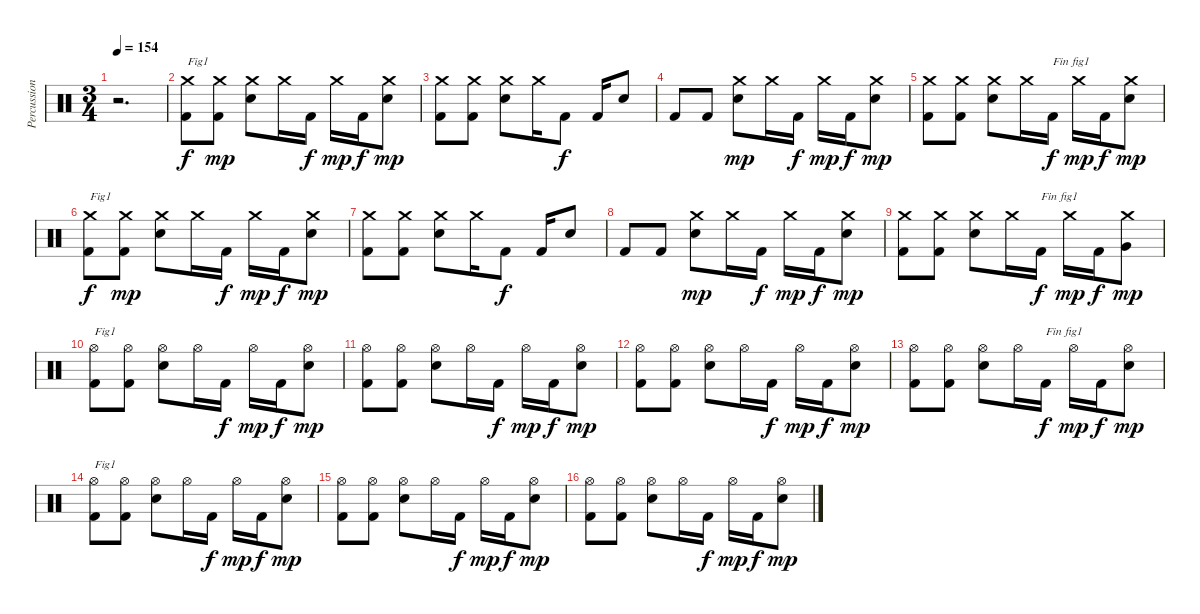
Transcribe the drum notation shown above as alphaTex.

\track ("Percussions" "Percussion") {instrument percussion}
\staff {score}
\articulation defaults
\ts (3 4)
\tempo 154
\clef neutral
\ks c
r.2{d dy f} |
("Kick (hit) 2" "Crash medium (hit)").8{txt "Fig1"} ("Kick (hit) 2" "Crash medium (hit)").8{dy mp} ("Electric Snare (hit)" "Crash medium (hit)").8 "Crash medium (hit)".16 "Kick (hit) 2".16{dy f} "Crash medium (hit)".16{dy mp} "Kick (hit) 2".16{dy f} ("Electric Snare (hit)" "Crash medium (hit)").8{dy mp} |
("Kick (hit) 2" "Crash medium (hit)").8 ("Kick (hit) 2" "Crash medium (hit)").8 ("Electric Snare (hit)" "Crash medium (hit)").8 "Crash medium (hit)".16 "Kick (hit) 2".8{dy f} "Kick (hit) 2".16 "Electric Snare (hit)".8 |
"Kick (hit) 2".8 "Kick (hit) 2".8 ("Electric Snare (hit)" "Crash medium (hit)").8{dy mp} "Crash medium (hit)".16 "Kick (hit) 2".16{dy f} "Crash medium (hit)".16{dy mp} "Kick (hit) 2".16{dy f} ("Electric Snare (hit)" "Crash medium (hit)").8{dy mp} |
("Kick (hit) 2" "Crash medium (hit)").8 ("Kick (hit) 2" "Crash medium (hit)").8 ("Electric Snare (hit)" "Crash medium (hit)").8 "Crash medium (hit)".16 "Kick (hit) 2".16{txt "Fin fig1" dy f} "Crash medium (hit)".16{dy mp} "Kick (hit) 2".16{dy f} ("Electric Snare (hit)" "Crash medium (hit)").8{dy mp} |
("Kick (hit) 2" "Crash medium (hit)").8{txt "Fig1" dy f} ("Kick (hit) 2" "Crash medium (hit)").8{dy mp} ("Electric Snare (hit)" "Crash medium (hit)").8 "Crash medium (hit)".16 "Kick (hit) 2".16{dy f} "Crash medium (hit)".16{dy mp} "Kick (hit) 2".16{dy f} ("Electric Snare (hit)" "Crash medium (hit)").8{dy mp} |
("Kick (hit) 2" "Crash medium (hit)").8 ("Kick (hit) 2" "Crash medium (hit)").8 ("Electric Snare (hit)" "Crash medium (hit)").8 "Crash medium (hit)".16 "Kick (hit) 2".8{dy f} "Kick (hit) 2".16 "Electric Snare (hit)".8 |
"Kick (hit) 2".8 "Kick (hit) 2".8 ("Electric Snare (hit)" "Crash medium (hit)").8{dy mp} "Crash medium (hit)".16 "Kick (hit) 2".16{dy f} "Crash medium (hit)".16{dy mp} "Kick (hit) 2".16{dy f} ("Electric Snare (hit)" "Crash medium (hit)").8{dy mp} |
("Kick (hit) 2" "Crash medium (hit)").8 ("Kick (hit) 2" "Crash medium (hit)").8 ("Electric Snare (hit)" "Crash medium (hit)").8 "Crash medium (hit)".16 "Kick (hit) 2".16{txt "Fin fig1" dy f} "Crash medium (hit)".16{dy mp} "Kick (hit) 2".16{dy f} ("Very Low Tom (hit)" "Crash medium (hit)").8{dy mp} |
("Kick (hit) 2" "Hi-Hat (open)").8{txt "Fig1"} ("Kick (hit) 2" "Hi-Hat (open)").8 ("Electric Snare (hit)" "Hi-Hat (open)").8 "Hi-Hat (open)".16 "Kick (hit) 2".16{dy f} "Hi-Hat (open)".16{dy mp} "Kick (hit) 2".16{dy f} ("Electric Snare (hit)" "Hi-Hat (open)").8{dy mp} |
("Kick (hit) 2" "Hi-Hat (open)").8 ("Kick (hit) 2" "Hi-Hat (open)").8 ("Electric Snare (hit)" "Hi-Hat (open)").8 "Hi-Hat (open)".16 "Kick (hit) 2".16{dy f} "Hi-Hat (open)".16{dy mp} "Kick (hit) 2".16{dy f} ("Electric Snare (hit)" "Hi-Hat (open)").8{dy mp} |
("Kick (hit) 2" "Hi-Hat (open)").8 ("Kick (hit) 2" "Hi-Hat (open)").8 ("Electric Snare (hit)" "Hi-Hat (open)").8 "Hi-Hat (open)".16 "Kick (hit) 2".16{dy f} "Hi-Hat (open)".16{dy mp} "Kick (hit) 2".16{dy f} ("Electric Snare (hit)" "Hi-Hat (open)").8{dy mp} |
("Kick (hit) 2" "Hi-Hat (open)").8 ("Kick (hit) 2" "Hi-Hat (open)").8 ("Electric Snare (hit)" "Hi-Hat (open)").8 "Hi-Hat (open)".16 "Kick (hit) 2".16{txt "Fin fig1" dy f} "Hi-Hat (open)".16{dy mp} "Kick (hit) 2".16{dy f} ("Electric Snare (hit)" "Hi-Hat (open)").8{dy mp} |
("Kick (hit) 2" "Hi-Hat (open)").8{txt "Fig1"} ("Kick (hit) 2" "Hi-Hat (open)").8 ("Electric Snare (hit)" "Hi-Hat (open)").8 "Hi-Hat (open)".16 "Kick (hit) 2".16{dy f} "Hi-Hat (open)".16{dy mp} "Kick (hit) 2".16{dy f} ("Electric Snare (hit)" "Hi-Hat (open)").8{dy mp} |
("Kick (hit) 2" "Hi-Hat (open)").8 ("Kick (hit) 2" "Hi-Hat (open)").8 ("Electric Snare (hit)" "Hi-Hat (open)").8 "Hi-Hat (open)".16 "Kick (hit) 2".16{dy f} "Hi-Hat (open)".16{dy mp} "Kick (hit) 2".16{dy f} ("Electric Snare (hit)" "Hi-Hat (open)").8{dy mp} |
("Kick (hit) 2" "Hi-Hat (open)").8 ("Kick (hit) 2" "Hi-Hat (open)").8 ("Electric Snare (hit)" "Hi-Hat (open)").8 "Hi-Hat (open)".16 "Kick (hit) 2".16{dy f} "Hi-Hat (open)".16{dy mp} "Kick (hit) 2".16{dy f} ("Electric Snare (hit)" "Hi-Hat (open)").8{dy mp}
